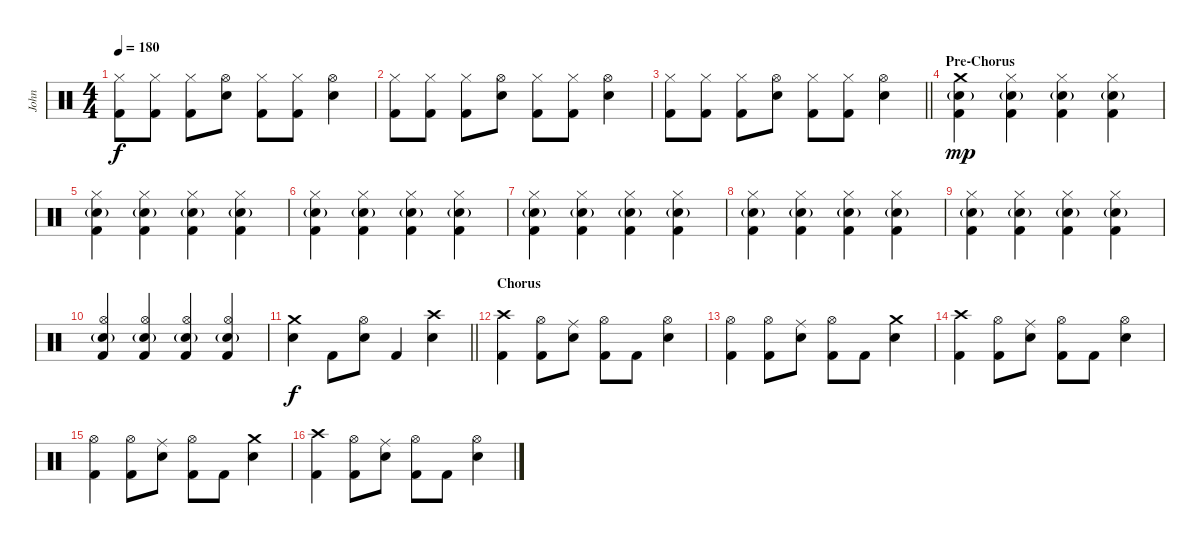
\track ("John" "John") {instrument percussion}
\staff {score}
\articulation defaults
\ts (4 4)
\tempo 180
\clef neutral
\ks c
("Hi-Hat (closed)" "Kick (hit) 2").8{dy f} ("Hi-Hat (closed)" "Kick (hit) 2").8 ("Hi-Hat (closed)" "Kick (hit) 2").8 ("Hi-Hat (open)" "Snare (hit) 2").8 ("Hi-Hat (closed)" "Kick (hit) 2").8 ("Hi-Hat (closed)" "Kick (hit) 2").8 ("Hi-Hat (open)" "Snare (hit) 2").4 |
("Hi-Hat (closed)" "Kick (hit) 2").8 ("Hi-Hat (closed)" "Kick (hit) 2").8 ("Hi-Hat (closed)" "Kick (hit) 2").8 ("Hi-Hat (open)" "Snare (hit) 2").8 ("Hi-Hat (closed)" "Kick (hit) 2").8 ("Hi-Hat (closed)" "Kick (hit) 2").8 ("Hi-Hat (open)" "Snare (hit) 2").4 |
\barLineRight lightlight
("Hi-Hat (closed)" "Kick (hit) 2").8 ("Hi-Hat (closed)" "Kick (hit) 2").8 ("Hi-Hat (closed)" "Kick (hit) 2").8 ("Hi-Hat (open)" "Snare (hit) 2").8 ("Hi-Hat (closed)" "Kick (hit) 2").8 ("Hi-Hat (closed)" "Kick (hit) 2").8 ("Hi-Hat (open)" "Snare (hit) 2").4 |
\section ("" "Pre-Chorus")
("Crash medium (hit)" "Kick (hit) 2" "Snare (hit) 2"{g}).4{dy mp} ("Hi-Hat (closed)" "Kick (hit) 2" "Snare (hit) 2"{g}).4 ("Hi-Hat (closed)" "Kick (hit) 2" "Snare (hit) 2"{g}).4 ("Hi-Hat (closed)" "Kick (hit) 2" "Snare (hit) 2"{g}).4 |
("Hi-Hat (closed)" "Kick (hit) 2" "Snare (hit) 2"{g}).4 ("Hi-Hat (closed)" "Kick (hit) 2" "Snare (hit) 2"{g}).4 ("Hi-Hat (closed)" "Kick (hit) 2" "Snare (hit) 2"{g}).4 ("Hi-Hat (closed)" "Kick (hit) 2" "Snare (hit) 2"{g}).4 |
("Hi-Hat (closed)" "Kick (hit) 2" "Snare (hit) 2"{g}).4 ("Hi-Hat (closed)" "Kick (hit) 2" "Snare (hit) 2"{g}).4 ("Hi-Hat (closed)" "Kick (hit) 2" "Snare (hit) 2"{g}).4 ("Hi-Hat (closed)" "Kick (hit) 2" "Snare (hit) 2"{g}).4 |
("Hi-Hat (closed)" "Kick (hit) 2" "Snare (hit) 2"{g}).4 ("Hi-Hat (closed)" "Kick (hit) 2" "Snare (hit) 2"{g}).4 ("Hi-Hat (closed)" "Kick (hit) 2" "Snare (hit) 2"{g}).4 ("Hi-Hat (closed)" "Kick (hit) 2" "Snare (hit) 2"{g}).4 |
("Hi-Hat (closed)" "Kick (hit) 2" "Snare (hit) 2"{g}).4 ("Hi-Hat (closed)" "Kick (hit) 2" "Snare (hit) 2"{g}).4 ("Hi-Hat (closed)" "Kick (hit) 2" "Snare (hit) 2"{g}).4 ("Hi-Hat (closed)" "Kick (hit) 2" "Snare (hit) 2"{g}).4 |
("Hi-Hat (closed)" "Kick (hit) 2" "Snare (hit) 2"{g}).4 ("Hi-Hat (closed)" "Kick (hit) 2" "Snare (hit) 2"{g}).4 ("Hi-Hat (closed)" "Kick (hit) 2" "Snare (hit) 2"{g}).4 ("Hi-Hat (closed)" "Kick (hit) 2" "Snare (hit) 2"{g}).4 |
("Hi-Hat (open)" "Kick (hit) 2" "Snare (hit) 2"{g}).4 ("Hi-Hat (open)" "Kick (hit) 2" "Snare (hit) 2"{g}).4 ("Hi-Hat (open)" "Kick (hit) 2" "Snare (hit) 2"{g}).4 ("Hi-Hat (open)" "Kick (hit) 2" "Snare (hit) 2"{g}).4 |
\barLineRight lightlight
("Crash medium (hit)" "Snare (hit) 2").4{dy f} "Kick (hit) 2".8 ("Hi-Hat (open)" "Snare (hit) 2").8 "Kick (hit) 2".4 ("Crash high (hit)" "Snare (hit) 2").4 |
\section ("" "Chorus ")
("Crash high (hit)" "Kick (hit) 2").4 ("Hi-Hat (open)" "Kick (hit) 2").8 ("Ride (middle)" "Snare (hit) 2").8 ("Hi-Hat (open)" "Kick (hit) 2").8 "Kick (hit) 2".8 ("Hi-Hat (open)" "Snare (hit) 2").4 |
("Hi-Hat (open)" "Kick (hit) 2").4 ("Hi-Hat (open)" "Kick (hit) 2").8 ("Ride (middle)" "Snare (hit) 2").8 ("Hi-Hat (open)" "Kick (hit) 2").8 "Kick (hit) 2".8 ("Crash medium (hit)" "Snare (hit) 2").4 |
("Crash high (hit)" "Kick (hit) 2").4 ("Hi-Hat (open)" "Kick (hit) 2").8 ("Ride (middle)" "Snare (hit) 2").8 ("Hi-Hat (open)" "Kick (hit) 2").8 "Kick (hit) 2".8 ("Hi-Hat (open)" "Snare (hit) 2").4 |
("Hi-Hat (open)" "Kick (hit) 2").4 ("Hi-Hat (open)" "Kick (hit) 2").8 ("Ride (middle)" "Snare (hit) 2").8 ("Hi-Hat (open)" "Kick (hit) 2").8 "Kick (hit) 2".8 ("Crash medium (hit)" "Snare (hit) 2").4 |
("Crash high (hit)" "Kick (hit) 2").4 ("Hi-Hat (open)" "Kick (hit) 2").8 ("Ride (middle)" "Snare (hit) 2").8 ("Hi-Hat (open)" "Kick (hit) 2").8 "Kick (hit) 2".8 ("Hi-Hat (open)" "Snare (hit) 2").4
